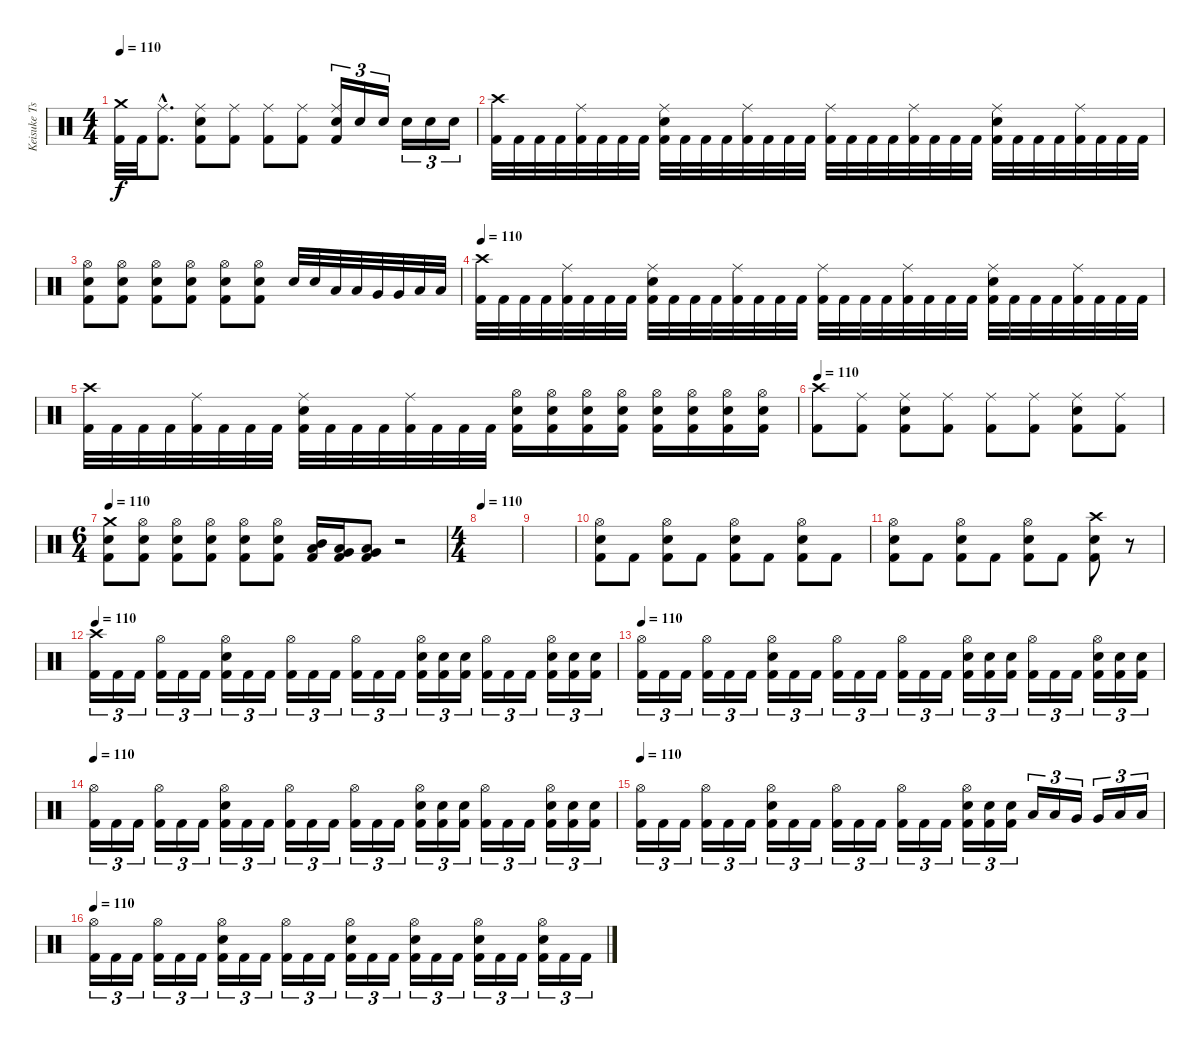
\track ("Keisuke Tsuboi" "Keisuke Ts") {instrument percussion}
\staff {score}
\articulation defaults
\ts (4 4)
\tempo 110
\clef neutral
\ks c
("Crash medium (hit)" "Kick (hit) 2").32{dy f} "Kick (hit) 2".32 ("Ride (middle)"{hac} "Kick (hit) 2"{hac}).8{d} ("Ride (middle)" "Electric Snare (hit)" "Kick (hit) 2").8 ("Ride (middle)" "Kick (hit) 2").8 ("Ride (middle)" "Kick (hit) 2").8 ("Ride (middle)" "Kick (hit) 2").8 ("Ride (middle)" "Electric Snare (hit)" "Kick (hit) 2").16{tu (3 2)} "Electric Snare (hit)".16{tu (3 2)} "Electric Snare (hit)".16{tu (3 2)} "Electric Snare (hit)".16{tu (3 2)} "Electric Snare (hit)".16{tu (3 2)} "Electric Snare (hit)".16{tu (3 2)} |
("Crash high (hit)" "Kick (hit) 2").32 "Kick (hit) 2".32 "Kick (hit) 2".32 "Kick (hit) 2".32 ("Ride (middle)" "Kick (hit) 2").32 "Kick (hit) 2".32 "Kick (hit) 2".32 "Kick (hit) 2".32 ("Ride (middle)" "Electric Snare (hit)" "Kick (hit) 2").32 "Kick (hit) 2".32 "Kick (hit) 2".32 "Kick (hit) 2".32 ("Ride (middle)" "Kick (hit) 2").32 "Kick (hit) 2".32 "Kick (hit) 2".32 "Kick (hit) 2".32 ("Ride (middle)" "Kick (hit) 2").32 "Kick (hit) 2".32 "Kick (hit) 2".32 "Kick (hit) 2".32 ("Ride (middle)" "Kick (hit) 2").32 "Kick (hit) 2".32 "Kick (hit) 2".32 "Kick (hit) 2".32 ("Ride (middle)" "Electric Snare (hit)" "Kick (hit) 2").32 "Kick (hit) 2".32 "Kick (hit) 2".32 "Kick (hit) 2".32 ("Ride (middle)" "Kick (hit) 2").32 "Kick (hit) 2".32 "Kick (hit) 2".32 "Kick (hit) 2".32 |
("Hi-Hat (open)" "Electric Snare (hit)" "Kick (hit) 2").8 ("Hi-Hat (open)" "Electric Snare (hit)" "Kick (hit) 2").8 ("Hi-Hat (open)" "Electric Snare (hit)" "Kick (hit) 2").8 ("Hi-Hat (open)" "Electric Snare (hit)" "Kick (hit) 2").8 ("Hi-Hat (open)" "Electric Snare (hit)" "Kick (hit) 2").8 ("Hi-Hat (open)" "Electric Snare (hit)" "Kick (hit) 2").8 "Electric Snare (hit)".32 "Electric Snare (hit)".32 "Low Tom (hit)".32 "Low Tom (hit)".32 "Very Low Tom (hit)".32 "Very Low Tom (hit)".32 "Low Floor Tom (hit)".32 "Low Floor Tom (hit)".32 |
\tempo 110
("Crash high (hit)" "Kick (hit) 2").32 "Kick (hit) 2".32 "Kick (hit) 2".32 "Kick (hit) 2".32 ("Ride (middle)" "Kick (hit) 2").32 "Kick (hit) 2".32 "Kick (hit) 2".32 "Kick (hit) 2".32 ("Ride (middle)" "Electric Snare (hit)" "Kick (hit) 2").32 "Kick (hit) 2".32 "Kick (hit) 2".32 "Kick (hit) 2".32 ("Ride (middle)" "Kick (hit) 2").32 "Kick (hit) 2".32 "Kick (hit) 2".32 "Kick (hit) 2".32 ("Ride (middle)" "Kick (hit) 2").32 "Kick (hit) 2".32 "Kick (hit) 2".32 "Kick (hit) 2".32 ("Ride (middle)" "Kick (hit) 2").32 "Kick (hit) 2".32 "Kick (hit) 2".32 "Kick (hit) 2".32 ("Ride (middle)" "Electric Snare (hit)" "Kick (hit) 2").32 "Kick (hit) 2".32 "Kick (hit) 2".32 "Kick (hit) 2".32 ("Ride (middle)" "Kick (hit) 2").32 "Kick (hit) 2".32 "Kick (hit) 2".32 "Kick (hit) 2".32 |
("Crash high (hit)" "Kick (hit) 2").32 "Kick (hit) 2".32 "Kick (hit) 2".32 "Kick (hit) 2".32 ("Ride (middle)" "Kick (hit) 2").32 "Kick (hit) 2".32 "Kick (hit) 2".32 "Kick (hit) 2".32 ("Ride (middle)" "Electric Snare (hit)" "Kick (hit) 2").32 "Kick (hit) 2".32 "Kick (hit) 2".32 "Kick (hit) 2".32 ("Ride (middle)" "Kick (hit) 2").32 "Kick (hit) 2".32 "Kick (hit) 2".32 "Kick (hit) 2".32 ("Hi-Hat (open)" "Electric Snare (hit)" "Kick (hit) 2").16 ("Hi-Hat (open)" "Electric Snare (hit)" "Kick (hit) 2").16 ("Hi-Hat (open)" "Electric Snare (hit)" "Kick (hit) 2").16 ("Hi-Hat (open)" "Electric Snare (hit)" "Kick (hit) 2").16 ("Hi-Hat (open)" "Electric Snare (hit)" "Kick (hit) 2").16 ("Hi-Hat (open)" "Electric Snare (hit)" "Kick (hit) 2").16 ("Hi-Hat (open)" "Electric Snare (hit)" "Kick (hit) 2").16 ("Hi-Hat (open)" "Electric Snare (hit)" "Kick (hit) 2").16 |
\tempo 110
("Crash high (hit)" "Kick (hit) 2").8 ("Ride (middle)" "Kick (hit) 2").8 ("Ride (middle)" "Electric Snare (hit)" "Kick (hit) 2").8 ("Ride (middle)" "Kick (hit) 2").8 ("Ride (middle)" "Kick (hit) 2").8 ("Ride (middle)" "Kick (hit) 2").8 ("Ride (middle)" "Electric Snare (hit)" "Kick (hit) 2").8 ("Ride (middle)" "Kick (hit) 2").8 |
\ts (6 4)
\tempo 110
("Crash medium (hit)" "Electric Snare (hit)" "Kick (hit) 2").8 ("Hi-Hat (open)" "Electric Snare (hit)" "Kick (hit) 2").8 ("Hi-Hat (open)" "Electric Snare (hit)" "Kick (hit) 2").8 ("Hi-Hat (open)" "Electric Snare (hit)" "Kick (hit) 2").8 ("Hi-Hat (open)" "Electric Snare (hit)" "Kick (hit) 2").8 ("Hi-Hat (open)" "Electric Snare (hit)" "Kick (hit) 2").8 ("Kick (hit) 2" "Mid Tom (hit)" "Low Tom (hit)").16 ("Kick (hit) 2" "Low Tom (hit)" "Very Low Tom (hit)").16 ("Kick (hit) 2" "Very Low Tom (hit)" "Low Floor Tom (hit)").8 r.2 |
\ts (4 4)
\tempo 110
|
|
("Hi-Hat (open)" "Electric Snare (hit)" "Kick (hit) 2").8 "Kick (hit) 2".8 ("Hi-Hat (open)" "Electric Snare (hit)" "Kick (hit) 2").8 "Kick (hit) 2".8 ("Hi-Hat (open)" "Electric Snare (hit)" "Kick (hit) 2").8 "Kick (hit) 2".8 ("Hi-Hat (open)" "Electric Snare (hit)" "Kick (hit) 2").8 "Kick (hit) 2".8 |
("Hi-Hat (open)" "Electric Snare (hit)" "Kick (hit) 2").8 "Kick (hit) 2".8 ("Hi-Hat (open)" "Electric Snare (hit)" "Kick (hit) 2").8 "Kick (hit) 2".8 ("Hi-Hat (open)" "Electric Snare (hit)" "Kick (hit) 2").8 "Kick (hit) 2".8 ("Crash high (hit)" "Electric Snare (hit)" "Kick (hit) 2").8 r.8{volume 0} |
\tempo 110
("Crash high (hit)" "Kick (hit) 2").16{tu (3 2) volume 15} "Kick (hit) 2".16{tu (3 2)} "Kick (hit) 2".16{tu (3 2)} ("Hi-Hat (open)" "Kick (hit) 2").16{tu (3 2)} "Kick (hit) 2".16{tu (3 2)} "Kick (hit) 2".16{tu (3 2)} ("Hi-Hat (open)" "Electric Snare (hit)" "Kick (hit) 2").16{tu (3 2)} "Kick (hit) 2".16{tu (3 2)} "Kick (hit) 2".16{tu (3 2)} ("Hi-Hat (open)" "Kick (hit) 2").16{tu (3 2)} "Kick (hit) 2".16{tu (3 2)} "Kick (hit) 2".16{tu (3 2)} ("Hi-Hat (open)" "Kick (hit) 2").16{tu (3 2)} "Kick (hit) 2".16{tu (3 2)} "Kick (hit) 2".16{tu (3 2)} ("Hi-Hat (open)" "Electric Snare (hit)" "Kick (hit) 2").16{tu (3 2)} ("Electric Snare (hit)" "Kick (hit) 2").16{tu (3 2)} ("Electric Snare (hit)" "Kick (hit) 2").16{tu (3 2)} ("Hi-Hat (open)" "Kick (hit) 2").16{tu (3 2)} "Kick (hit) 2".16{tu (3 2)} "Kick (hit) 2".16{tu (3 2)} ("Hi-Hat (open)" "Electric Snare (hit)" "Kick (hit) 2").16{tu (3 2)} ("Electric Snare (hit)" "Kick (hit) 2").16{tu (3 2)} ("Electric Snare (hit)" "Kick (hit) 2").16{tu (3 2)} |
\tempo 110
("Hi-Hat (open)" "Kick (hit) 2").16{tu (3 2) volume 15} "Kick (hit) 2".16{tu (3 2)} "Kick (hit) 2".16{tu (3 2)} ("Hi-Hat (open)" "Kick (hit) 2").16{tu (3 2)} "Kick (hit) 2".16{tu (3 2)} "Kick (hit) 2".16{tu (3 2)} ("Hi-Hat (open)" "Electric Snare (hit)" "Kick (hit) 2").16{tu (3 2)} "Kick (hit) 2".16{tu (3 2)} "Kick (hit) 2".16{tu (3 2)} ("Hi-Hat (open)" "Kick (hit) 2").16{tu (3 2)} "Kick (hit) 2".16{tu (3 2)} "Kick (hit) 2".16{tu (3 2)} ("Hi-Hat (open)" "Kick (hit) 2").16{tu (3 2)} "Kick (hit) 2".16{tu (3 2)} "Kick (hit) 2".16{tu (3 2)} ("Hi-Hat (open)" "Electric Snare (hit)" "Kick (hit) 2").16{tu (3 2)} ("Electric Snare (hit)" "Kick (hit) 2").16{tu (3 2)} ("Electric Snare (hit)" "Kick (hit) 2").16{tu (3 2)} ("Hi-Hat (open)" "Kick (hit) 2").16{tu (3 2)} "Kick (hit) 2".16{tu (3 2)} "Kick (hit) 2".16{tu (3 2)} ("Hi-Hat (open)" "Electric Snare (hit)" "Kick (hit) 2").16{tu (3 2)} ("Electric Snare (hit)" "Kick (hit) 2").16{tu (3 2)} ("Electric Snare (hit)" "Kick (hit) 2").16{tu (3 2)} |
\tempo 110
("Hi-Hat (open)" "Kick (hit) 2").16{tu (3 2) volume 15} "Kick (hit) 2".16{tu (3 2)} "Kick (hit) 2".16{tu (3 2)} ("Hi-Hat (open)" "Kick (hit) 2").16{tu (3 2)} "Kick (hit) 2".16{tu (3 2)} "Kick (hit) 2".16{tu (3 2)} ("Hi-Hat (open)" "Electric Snare (hit)" "Kick (hit) 2").16{tu (3 2)} "Kick (hit) 2".16{tu (3 2)} "Kick (hit) 2".16{tu (3 2)} ("Hi-Hat (open)" "Kick (hit) 2").16{tu (3 2)} "Kick (hit) 2".16{tu (3 2)} "Kick (hit) 2".16{tu (3 2)} ("Hi-Hat (open)" "Kick (hit) 2").16{tu (3 2)} "Kick (hit) 2".16{tu (3 2)} "Kick (hit) 2".16{tu (3 2)} ("Hi-Hat (open)" "Electric Snare (hit)" "Kick (hit) 2").16{tu (3 2)} ("Electric Snare (hit)" "Kick (hit) 2").16{tu (3 2)} ("Electric Snare (hit)" "Kick (hit) 2").16{tu (3 2)} ("Hi-Hat (open)" "Kick (hit) 2").16{tu (3 2)} "Kick (hit) 2".16{tu (3 2)} "Kick (hit) 2".16{tu (3 2)} ("Hi-Hat (open)" "Electric Snare (hit)" "Kick (hit) 2").16{tu (3 2)} ("Electric Snare (hit)" "Kick (hit) 2").16{tu (3 2)} ("Electric Snare (hit)" "Kick (hit) 2").16{tu (3 2)} |
\tempo 110
("Hi-Hat (open)" "Kick (hit) 2").16{tu (3 2) volume 15} "Kick (hit) 2".16{tu (3 2)} "Kick (hit) 2".16{tu (3 2)} ("Hi-Hat (open)" "Kick (hit) 2").16{tu (3 2)} "Kick (hit) 2".16{tu (3 2)} "Kick (hit) 2".16{tu (3 2)} ("Hi-Hat (open)" "Electric Snare (hit)" "Kick (hit) 2").16{tu (3 2)} "Kick (hit) 2".16{tu (3 2)} "Kick (hit) 2".16{tu (3 2)} ("Hi-Hat (open)" "Kick (hit) 2").16{tu (3 2)} "Kick (hit) 2".16{tu (3 2)} "Kick (hit) 2".16{tu (3 2)} ("Hi-Hat (open)" "Kick (hit) 2").16{tu (3 2)} "Kick (hit) 2".16{tu (3 2)} "Kick (hit) 2".16{tu (3 2)} ("Hi-Hat (open)" "Electric Snare (hit)" "Kick (hit) 2").16{tu (3 2)} ("Electric Snare (hit)" "Kick (hit) 2").16{tu (3 2)} ("Electric Snare (hit)" "Kick (hit) 2").16{tu (3 2)} "Low Tom (hit)".16{tu (3 2)} "Low Tom (hit)".16{tu (3 2)} "Very Low Tom (hit)".16{tu (3 2)} "Very Low Tom (hit)".16{tu (3 2)} "Low Floor Tom (hit)".16{tu (3 2)} "Low Floor Tom (hit)".16{tu (3 2)} |
\tempo 110
("Hi-Hat (open)" "Kick (hit) 2").16{tu (3 2) volume 15} "Kick (hit) 2".16{tu (3 2)} "Kick (hit) 2".16{tu (3 2)} ("Hi-Hat (open)" "Kick (hit) 2").16{tu (3 2)} "Kick (hit) 2".16{tu (3 2)} "Kick (hit) 2".16{tu (3 2)} ("Hi-Hat (open)" "Electric Snare (hit)" "Kick (hit) 2").16{tu (3 2)} "Kick (hit) 2".16{tu (3 2)} "Kick (hit) 2".16{tu (3 2)} ("Hi-Hat (open)" "Kick (hit) 2").16{tu (3 2)} "Kick (hit) 2".16{tu (3 2)} "Kick (hit) 2".16{tu (3 2)} ("Hi-Hat (open)" "Electric Snare (hit)" "Kick (hit) 2").16{tu (3 2)} "Kick (hit) 2".16{tu (3 2)} "Kick (hit) 2".16{tu (3 2)} ("Hi-Hat (open)" "Electric Snare (hit)" "Kick (hit) 2").16{tu (3 2)} "Kick (hit) 2".16{tu (3 2)} "Kick (hit) 2".16{tu (3 2)} ("Hi-Hat (open)" "Electric Snare (hit)" "Kick (hit) 2").16{tu (3 2)} "Kick (hit) 2".16{tu (3 2)} "Kick (hit) 2".16{tu (3 2)} ("Hi-Hat (open)" "Electric Snare (hit)" "Kick (hit) 2").16{tu (3 2)} "Kick (hit) 2".16{tu (3 2)} "Kick (hit) 2".16{tu (3 2)}
